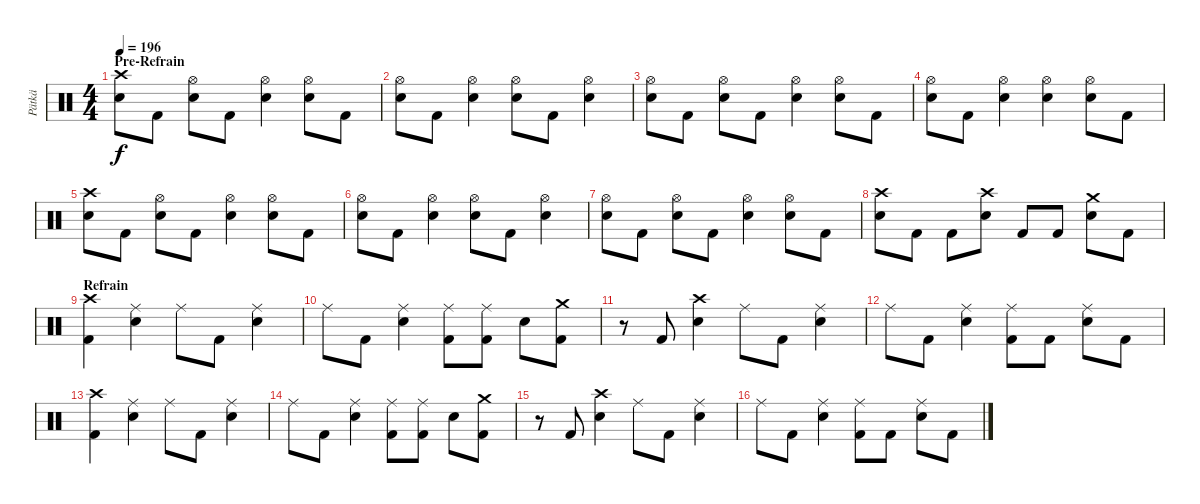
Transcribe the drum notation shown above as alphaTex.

\track ("Pätkä" "Pätkä") {instrument percussion}
\staff {score}
\articulation defaults
\ts (4 4)
\section ("" "Pre-Refrain")
\tempo 196
\clef neutral
\ks c
("Crash high (hit)" "Electric Snare (hit)").8{dy f} "Kick (hit) 2".8 ("Hi-Hat (open)" "Electric Snare (hit)").8 "Kick (hit) 2".8 ("Hi-Hat (open)" "Electric Snare (hit)").4 ("Hi-Hat (open)" "Electric Snare (hit)").8 "Kick (hit) 2".8 |
("Hi-Hat (open)" "Electric Snare (hit)").8 "Kick (hit) 2".8 ("Hi-Hat (open)" "Electric Snare (hit)").4 ("Hi-Hat (open)" "Electric Snare (hit)").8 "Kick (hit) 2".8 ("Hi-Hat (open)" "Electric Snare (hit)").4 |
("Hi-Hat (open)" "Electric Snare (hit)").8 "Kick (hit) 2".8 ("Hi-Hat (open)" "Electric Snare (hit)").8 "Kick (hit) 2".8 ("Hi-Hat (open)" "Electric Snare (hit)").4 ("Hi-Hat (open)" "Electric Snare (hit)").8 "Kick (hit) 2".8 |
("Hi-Hat (open)" "Electric Snare (hit)").8 "Kick (hit) 2".8 ("Hi-Hat (open)" "Electric Snare (hit)").4 ("Hi-Hat (open)" "Electric Snare (hit)").4 ("Hi-Hat (open)" "Electric Snare (hit)").8 "Kick (hit) 2".8 |
("Crash high (hit)" "Electric Snare (hit)").8 "Kick (hit) 2".8 ("Hi-Hat (open)" "Electric Snare (hit)").8 "Kick (hit) 2".8 ("Hi-Hat (open)" "Electric Snare (hit)").4 ("Hi-Hat (open)" "Electric Snare (hit)").8 "Kick (hit) 2".8 |
("Hi-Hat (open)" "Electric Snare (hit)").8 "Kick (hit) 2".8 ("Hi-Hat (open)" "Electric Snare (hit)").4 ("Hi-Hat (open)" "Electric Snare (hit)").8 "Kick (hit) 2".8 ("Hi-Hat (open)" "Electric Snare (hit)").4 |
("Hi-Hat (open)" "Electric Snare (hit)").8 "Kick (hit) 2".8 ("Hi-Hat (open)" "Electric Snare (hit)").8 "Kick (hit) 2".8 ("Hi-Hat (open)" "Electric Snare (hit)").4 ("Hi-Hat (open)" "Electric Snare (hit)").8 "Kick (hit) 2".8 |
("Crash high (hit)" "Electric Snare (hit)").8 "Kick (hit) 2".8 "Kick (hit) 2".8 ("Crash high (hit)" "Electric Snare (hit)").8 "Kick (hit) 2".8 "Kick (hit) 2".8 ("Crash medium (hit)" "Electric Snare (hit)").8 "Kick (hit) 2".8 |
\section ("" "Refrain")
("Crash high (hit)" "Kick (hit) 2").4 ("Ride (middle)" "Electric Snare (hit)").4 "Ride (middle)".8 "Kick (hit) 2".8 ("Ride (middle)" "Electric Snare (hit)").4 |
"Ride (middle)".8 "Kick (hit) 2".8 ("Ride (middle)" "Electric Snare (hit)").4 ("Ride (middle)" "Kick (hit) 2").8 ("Ride (middle)" "Kick (hit) 2").8 "Electric Snare (hit)".8 ("Crash medium (hit)" "Kick (hit) 2").8 |
r.8 "Kick (hit) 2".8 ("Crash high (hit)" "Electric Snare (hit)").4 "Ride (middle)".8 "Kick (hit) 2".8 ("Ride (middle)" "Electric Snare (hit)").4 |
"Ride (middle)".8 "Kick (hit) 2".8 ("Ride (middle)" "Electric Snare (hit)").4 ("Ride (middle)" "Kick (hit) 2").8 "Kick (hit) 2".8 ("Ride (middle)" "Electric Snare (hit)").8 "Kick (hit) 2".8 |
("Crash high (hit)" "Kick (hit) 2").4 ("Ride (middle)" "Electric Snare (hit)").4 "Ride (middle)".8 "Kick (hit) 2".8 ("Ride (middle)" "Electric Snare (hit)").4 |
"Ride (middle)".8 "Kick (hit) 2".8 ("Ride (middle)" "Electric Snare (hit)").4 ("Ride (middle)" "Kick (hit) 2").8 ("Ride (middle)" "Kick (hit) 2").8 "Electric Snare (hit)".8 ("Crash medium (hit)" "Kick (hit) 2").8 |
r.8 "Kick (hit) 2".8 ("Crash high (hit)" "Electric Snare (hit)").4 "Ride (middle)".8 "Kick (hit) 2".8 ("Ride (middle)" "Electric Snare (hit)").4 |
"Ride (middle)".8 "Kick (hit) 2".8 ("Ride (middle)" "Electric Snare (hit)").4 ("Ride (middle)" "Kick (hit) 2").8 "Kick (hit) 2".8 ("Ride (middle)" "Electric Snare (hit)").8 "Kick (hit) 2".8
